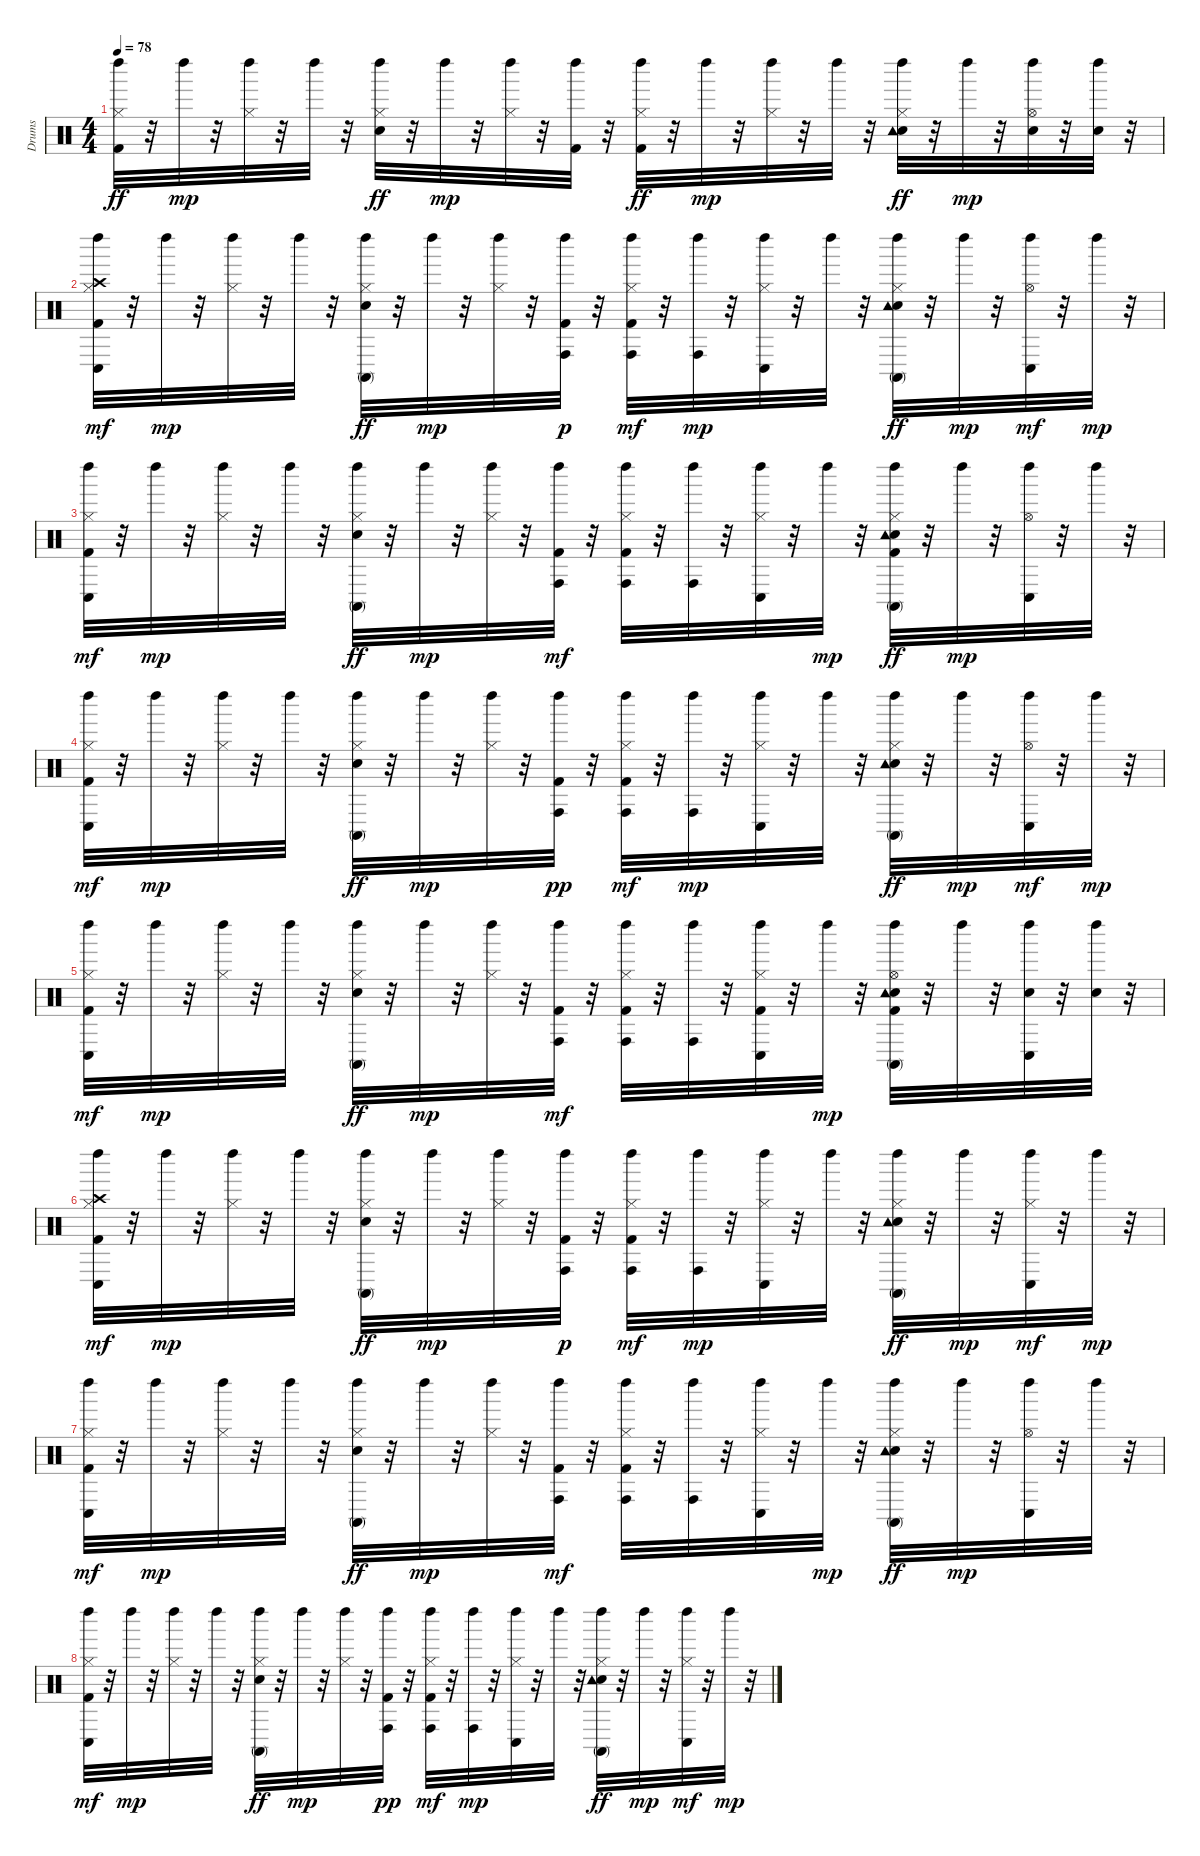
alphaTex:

\track ("Drums               " "Drums     ") {instrument percussion}
\staff {score}
\articulation defaults
\ts (4 4)
\tempo 78
\clef neutral
\ks c
("Kick (hit) 2" "Hi-Hat (closed)" "Left Maraca (hit)").32{dy ff} r.32 "Left Maraca (hit)".32{dy mp} r.32 ("Hi-Hat (closed)" "Left Maraca (hit)").32 r.32 "Left Maraca (hit)".32 r.32 ("Snare (hit) 2" "Hi-Hat (closed)" "Left Maraca (hit)").32{dy ff} r.32 "Left Maraca (hit)".32{dy mp} r.32 ("Hi-Hat (closed)" "Left Maraca (hit)").32 r.32 ("Kick (hit) 2" "Left Maraca (hit)").32 r.32 ("Kick (hit) 2" "Hi-Hat (closed)" "Left Maraca (hit)").32{dy ff} r.32 "Left Maraca (hit)".32{dy mp} r.32 ("Hi-Hat (closed)" "Left Maraca (hit)").32 r.32 "Left Maraca (hit)".32 r.32 ("Snare (hit) 2" "Hi-Hat (closed)" "Left Maraca (hit)" "Tambourine (hit)").32{dy ff} r.32 "Left Maraca (hit)".32{dy mp} r.32 ("Snare (hit) 2" "Hi-Hat (open)" "Left Maraca (hit)").32 r.32 ("Snare (hit) 2" "Left Maraca (hit)").32 r.32 |
("Kick (hit) 2" "Hi-Hat (closed)" "Left Maraca (hit)" "Crash high (hit)" "Conga low (hit)").32{dy mf} r.32 "Left Maraca (hit)".32{dy mp} r.32 ("Hi-Hat (closed)" "Left Maraca (hit)").32 r.32 "Left Maraca (hit)".32 r.32 ("Snare (hit) 2" "Hi-Hat (closed)" "Left Maraca (hit)" "Conga high (mute)").32{dy ff} r.32 "Left Maraca (hit)".32{dy mp} r.32 ("Hi-Hat (closed)" "Left Maraca (hit)").32 r.32 ("Kick (hit) 2" "Left Maraca (hit)" "Conga high (hit)").32{dy p} r.32 ("Kick (hit) 2" "Hi-Hat (closed)" "Left Maraca (hit)" "Conga high (hit)").32{dy mf} r.32 ("Left Maraca (hit)" "Conga high (hit)").32{dy mp} r.32 ("Hi-Hat (closed)" "Left Maraca (hit)" "Conga low (hit)").32 r.32 "Left Maraca (hit)".32 r.32 ("Snare (hit) 2" "Hi-Hat (closed)" "Left Maraca (hit)" "Conga high (mute)" "Tambourine (hit)").32{dy ff} r.32 "Left Maraca (hit)".32{dy mp} r.32 ("Hi-Hat (open)" "Left Maraca (hit)" "Conga low (hit)").32{dy mf} r.32 "Left Maraca (hit)".32{dy mp} r.32 |
("Kick (hit) 2" "Hi-Hat (closed)" "Left Maraca (hit)" "Conga low (hit)").32{dy mf} r.32 "Left Maraca (hit)".32{dy mp} r.32 ("Hi-Hat (closed)" "Left Maraca (hit)").32 r.32 "Left Maraca (hit)".32 r.32 ("Snare (hit) 2" "Hi-Hat (closed)" "Left Maraca (hit)" "Conga high (mute)").32{dy ff} r.32 "Left Maraca (hit)".32{dy mp} r.32 ("Hi-Hat (closed)" "Left Maraca (hit)").32 r.32 ("Kick (hit) 2" "Left Maraca (hit)" "Conga high (hit)").32{dy mf} r.32 ("Kick (hit) 2" "Hi-Hat (closed)" "Left Maraca (hit)" "Conga high (hit)").32 r.32 ("Left Maraca (hit)" "Conga high (hit)").32 r.32 ("Hi-Hat (closed)" "Left Maraca (hit)" "Conga low (hit)").32 r.32 "Left Maraca (hit)".32{dy mp} r.32 ("Kick (hit) 2" "Snare (hit) 2" "Hi-Hat (closed)" "Left Maraca (hit)" "Conga high (mute)" "Tambourine (hit)").32{dy ff} r.32 "Left Maraca (hit)".32{dy mp} r.32 ("Hi-Hat (open)" "Left Maraca (hit)" "Conga low (hit)").32 r.32 "Left Maraca (hit)".32 r.32 |
("Kick (hit) 2" "Hi-Hat (closed)" "Left Maraca (hit)" "Conga low (hit)").32{dy mf} r.32 "Left Maraca (hit)".32{dy mp} r.32 ("Hi-Hat (closed)" "Left Maraca (hit)").32 r.32 "Left Maraca (hit)".32 r.32 ("Snare (hit) 2" "Hi-Hat (closed)" "Left Maraca (hit)" "Conga high (mute)").32{dy ff} r.32 "Left Maraca (hit)".32{dy mp} r.32 ("Hi-Hat (closed)" "Left Maraca (hit)").32 r.32 ("Kick (hit) 2" "Left Maraca (hit)" "Conga high (hit)").32{dy pp} r.32 ("Kick (hit) 2" "Hi-Hat (closed)" "Left Maraca (hit)" "Conga high (hit)").32{dy mf} r.32 ("Left Maraca (hit)" "Conga high (hit)").32{dy mp} r.32 ("Hi-Hat (closed)" "Left Maraca (hit)" "Conga low (hit)").32 r.32 "Left Maraca (hit)".32 r.32 ("Snare (hit) 2" "Hi-Hat (closed)" "Left Maraca (hit)" "Conga high (mute)" "Tambourine (hit)").32{dy ff} r.32 "Left Maraca (hit)".32{dy mp} r.32 ("Hi-Hat (open)" "Left Maraca (hit)" "Conga low (hit)").32{dy mf} r.32 "Left Maraca (hit)".32{dy mp} r.32 |
("Kick (hit) 2" "Hi-Hat (closed)" "Left Maraca (hit)" "Conga low (hit)").32{dy mf} r.32 "Left Maraca (hit)".32{dy mp} r.32 ("Hi-Hat (closed)" "Left Maraca (hit)").32 r.32 "Left Maraca (hit)".32 r.32 ("Snare (hit) 2" "Hi-Hat (closed)" "Left Maraca (hit)" "Conga high (mute)").32{dy ff} r.32 "Left Maraca (hit)".32{dy mp} r.32 ("Hi-Hat (closed)" "Left Maraca (hit)").32 r.32 ("Kick (hit) 2" "Left Maraca (hit)" "Conga high (hit)").32{dy mf} r.32 ("Kick (hit) 2" "Hi-Hat (closed)" "Left Maraca (hit)" "Conga high (hit)").32 r.32 ("Left Maraca (hit)" "Conga high (hit)").32 r.32 ("Kick (hit) 2" "Hi-Hat (closed)" "Left Maraca (hit)" "Conga low (hit)").32 r.32 "Left Maraca (hit)".32{dy mp} r.32 ("Kick (hit) 2" "Snare (hit) 2" "Hi-Hat (open)" "Left Maraca (hit)" "Conga high (mute)" "Tambourine (hit)").32 r.32 "Left Maraca (hit)".32 r.32 ("Snare (hit) 2" "Left Maraca (hit)" "Conga low (hit)").32 r.32 ("Snare (hit) 2" "Left Maraca (hit)").32 r.32 |
("Kick (hit) 2" "Hi-Hat (closed)" "Left Maraca (hit)" "Crash high (hit)" "Conga low (hit)").32{dy mf} r.32 "Left Maraca (hit)".32{dy mp} r.32 ("Hi-Hat (closed)" "Left Maraca (hit)").32 r.32 "Left Maraca (hit)".32 r.32 ("Snare (hit) 2" "Hi-Hat (closed)" "Left Maraca (hit)" "Conga high (mute)").32{dy ff} r.32 "Left Maraca (hit)".32{dy mp} r.32 ("Hi-Hat (closed)" "Left Maraca (hit)").32 r.32 ("Kick (hit) 2" "Left Maraca (hit)" "Conga high (hit)").32{dy p} r.32 ("Kick (hit) 2" "Hi-Hat (closed)" "Left Maraca (hit)" "Conga high (hit)").32{dy mf} r.32 ("Left Maraca (hit)" "Conga high (hit)").32{dy mp} r.32 ("Hi-Hat (closed)" "Left Maraca (hit)" "Conga low (hit)").32 r.32 "Left Maraca (hit)".32 r.32 ("Snare (hit) 2" "Hi-Hat (closed)" "Left Maraca (hit)" "Conga high (mute)" "Tambourine (hit)").32{dy ff} r.32 "Left Maraca (hit)".32{dy mp} r.32 ("Hi-Hat (closed)" "Left Maraca (hit)" "Conga low (hit)").32{dy mf} r.32 "Left Maraca (hit)".32{dy mp} r.32 |
("Kick (hit) 2" "Hi-Hat (closed)" "Left Maraca (hit)" "Conga low (hit)").32{dy mf} r.32 "Left Maraca (hit)".32{dy mp} r.32 ("Hi-Hat (closed)" "Left Maraca (hit)").32 r.32 "Left Maraca (hit)".32 r.32 ("Snare (hit) 2" "Hi-Hat (closed)" "Left Maraca (hit)" "Conga high (mute)").32{dy ff} r.32 "Left Maraca (hit)".32{dy mp} r.32 ("Hi-Hat (closed)" "Left Maraca (hit)").32 r.32 ("Kick (hit) 2" "Left Maraca (hit)" "Conga high (hit)").32{dy mf} r.32 ("Kick (hit) 2" "Hi-Hat (closed)" "Left Maraca (hit)" "Conga high (hit)").32 r.32 ("Left Maraca (hit)" "Conga high (hit)").32 r.32 ("Hi-Hat (closed)" "Left Maraca (hit)" "Conga low (hit)").32 r.32 "Left Maraca (hit)".32{dy mp} r.32 ("Snare (hit) 2" "Hi-Hat (closed)" "Left Maraca (hit)" "Conga high (mute)" "Tambourine (hit)").32{dy ff} r.32 "Left Maraca (hit)".32{dy mp} r.32 ("Hi-Hat (open)" "Left Maraca (hit)" "Conga low (hit)").32 r.32 "Left Maraca (hit)".32 r.32 |
("Kick (hit) 2" "Hi-Hat (closed)" "Left Maraca (hit)" "Conga low (hit)").32{dy mf} r.32 "Left Maraca (hit)".32{dy mp} r.32 ("Hi-Hat (closed)" "Left Maraca (hit)").32 r.32 "Left Maraca (hit)".32 r.32 ("Snare (hit) 2" "Hi-Hat (closed)" "Left Maraca (hit)" "Conga high (mute)").32{dy ff} r.32 "Left Maraca (hit)".32{dy mp} r.32 ("Hi-Hat (closed)" "Left Maraca (hit)").32 r.32 ("Kick (hit) 2" "Left Maraca (hit)" "Conga high (hit)").32{dy pp} r.32 ("Kick (hit) 2" "Hi-Hat (closed)" "Left Maraca (hit)" "Conga high (hit)").32{dy mf} r.32 ("Left Maraca (hit)" "Conga high (hit)").32{dy mp} r.32 ("Hi-Hat (closed)" "Left Maraca (hit)" "Conga low (hit)").32 r.32 "Left Maraca (hit)".32 r.32 ("Snare (hit) 2" "Hi-Hat (closed)" "Left Maraca (hit)" "Conga high (mute)" "Tambourine (hit)").32{dy ff} r.32 "Left Maraca (hit)".32{dy mp} r.32 ("Hi-Hat (closed)" "Left Maraca (hit)" "Conga low (hit)").32{dy mf} r.32 "Left Maraca (hit)".32{dy mp} r.32
